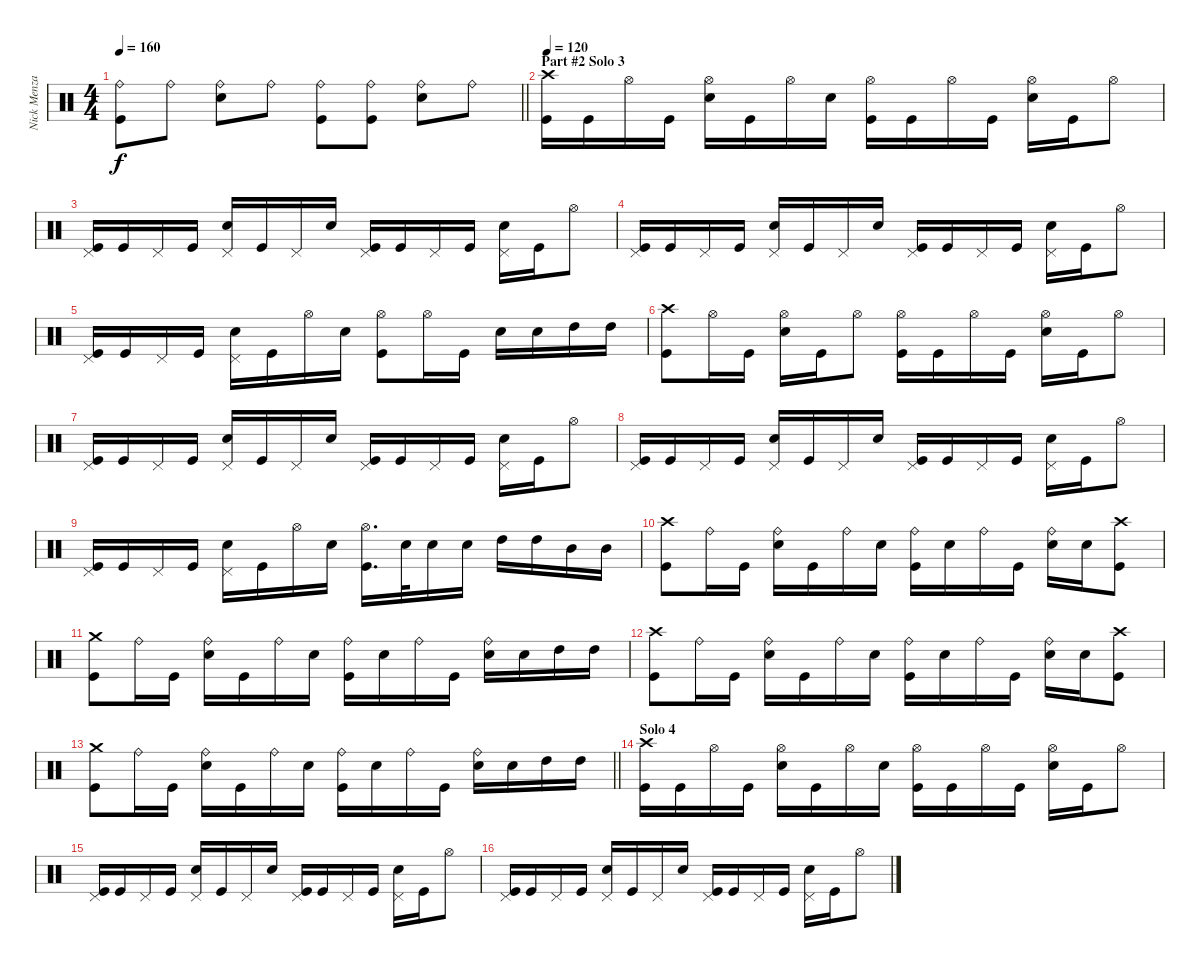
\track ("Nick Menza" "Nick Menza") {instrument percussion}
\staff {score}
\articulation defaults
\ts (4 4)
\tempo 160
\clef neutral
\barLineRight lightlight
\ks c
("Ride (bell)" "Kick (hit)").8{dy f} "Ride (bell)".8 ("Ride (bell)" "Snare (hit) 2").8 "Ride (bell)".8 ("Ride (bell)" "Kick (hit)").8 ("Ride (bell)" "Kick (hit)").8 ("Ride (bell)" "Snare (hit) 2").8 "Ride (bell)".8 |
\section ("" "Part #2 Solo 3")
\tempo 120
("Crash high (hit)" "Kick (hit)").16 "Kick (hit)".16 "Hi-Hat (open)".16 "Kick (hit)".16 ("Hi-Hat (open)" "Snare (hit) 2").16 "Kick (hit)".16 "Hi-Hat (open)".16 "Snare (hit) 2".16 ("Hi-Hat (open)" "Kick (hit)").16 "Kick (hit)".16 "Hi-Hat (open)".16 "Kick (hit)".16 ("Hi-Hat (open)" "Snare (hit) 2").16 "Kick (hit)".16 "Hi-Hat (open)".8 |
("Pedal Hi-Hat (hit)" "Kick (hit)").16 "Kick (hit)".16 "Pedal Hi-Hat (hit)".16 "Kick (hit)".16 ("Pedal Hi-Hat (hit)" "Snare (hit) 2").16 "Kick (hit)".16 "Pedal Hi-Hat (hit)".16 "Snare (hit) 2".16 ("Pedal Hi-Hat (hit)" "Kick (hit)").16 "Kick (hit)".16 "Pedal Hi-Hat (hit)".16 "Kick (hit)".16 ("Pedal Hi-Hat (hit)" "Snare (hit) 2").16 "Kick (hit)".16 "Hi-Hat (open)".8 |
("Pedal Hi-Hat (hit)" "Kick (hit)").16 "Kick (hit)".16 "Pedal Hi-Hat (hit)".16 "Kick (hit)".16 ("Pedal Hi-Hat (hit)" "Snare (hit) 2").16 "Kick (hit)".16 "Pedal Hi-Hat (hit)".16 "Snare (hit) 2".16 ("Pedal Hi-Hat (hit)" "Kick (hit)").16 "Kick (hit)".16 "Pedal Hi-Hat (hit)".16 "Kick (hit)".16 ("Pedal Hi-Hat (hit)" "Snare (hit) 2").16 "Kick (hit)".16 "Hi-Hat (open)".8 |
("Pedal Hi-Hat (hit)" "Kick (hit)").16 "Kick (hit)".16 "Pedal Hi-Hat (hit)".16 "Kick (hit)".16 ("Pedal Hi-Hat (hit)" "Snare (hit) 2").16 "Kick (hit)".16 "Hi-Hat (open)".16 "Snare (hit) 2".16 ("Hi-Hat (open)" "Kick (hit)").8 "Hi-Hat (open)".16 "Kick (hit)".16 "Snare (hit) 2".16 "Snare (hit) 2".16 "High Tom (hit)".16 "High Tom (hit)".16 |
("Crash high (hit)" "Kick (hit)").8 "Hi-Hat (open)".16 "Kick (hit)".16 ("Hi-Hat (open)" "Snare (hit) 2").16 "Kick (hit)".16 "Hi-Hat (open)".8 ("Hi-Hat (open)" "Kick (hit)").16 "Kick (hit)".16 "Hi-Hat (open)".16 "Kick (hit)".16 ("Hi-Hat (open)" "Snare (hit) 2").16 "Kick (hit)".16 "Hi-Hat (open)".8 |
("Pedal Hi-Hat (hit)" "Kick (hit)").16 "Kick (hit)".16 "Pedal Hi-Hat (hit)".16 "Kick (hit)".16 ("Pedal Hi-Hat (hit)" "Snare (hit) 2").16 "Kick (hit)".16 "Pedal Hi-Hat (hit)".16 "Snare (hit) 2".16 ("Pedal Hi-Hat (hit)" "Kick (hit)").16 "Kick (hit)".16 "Pedal Hi-Hat (hit)".16 "Kick (hit)".16 ("Pedal Hi-Hat (hit)" "Snare (hit) 2").16 "Kick (hit)".16 "Hi-Hat (open)".8 |
("Pedal Hi-Hat (hit)" "Kick (hit)").16 "Kick (hit)".16 "Pedal Hi-Hat (hit)".16 "Kick (hit)".16 ("Pedal Hi-Hat (hit)" "Snare (hit) 2").16 "Kick (hit)".16 "Pedal Hi-Hat (hit)".16 "Snare (hit) 2".16 ("Pedal Hi-Hat (hit)" "Kick (hit)").16 "Kick (hit)".16 "Pedal Hi-Hat (hit)".16 "Kick (hit)".16 ("Pedal Hi-Hat (hit)" "Snare (hit) 2").16 "Kick (hit)".16 "Hi-Hat (open)".8 |
("Pedal Hi-Hat (hit)" "Kick (hit)").16 "Kick (hit)".16 "Pedal Hi-Hat (hit)".16 "Kick (hit)".16 ("Pedal Hi-Hat (hit)" "Snare (hit) 2").16 "Kick (hit)".16 "Hi-Hat (open)".16 "Snare (hit) 2".16 ("Hi-Hat (open)" "Kick (hit)").16{d} "Snare (hit) 2".32 "Snare (hit) 2".16 "Snare (hit) 2".16 "High Tom (hit)".16 "High Tom (hit)".16 "Mid Tom (hit)".16 "Mid Tom (hit)".16 |
("Crash high (hit)" "Kick (hit)").8 "Ride (bell)".16 "Kick (hit)".16 ("Ride (bell)" "Snare (hit) 2").16 "Kick (hit)".16 "Ride (bell)".16 "Snare (hit) 2".16 ("Ride (bell)" "Kick (hit)").16 "Snare (hit) 2".16 "Ride (bell)".16 "Kick (hit)".16 ("Ride (bell)" "Snare (hit) 2").16 "Snare (hit) 2".16 ("Crash high (hit)" "Kick (hit)").8 |
("Crash medium (hit)" "Kick (hit)").8 "Ride (bell)".16 "Kick (hit)".16 ("Ride (bell)" "Snare (hit) 2").16 "Kick (hit)".16 "Ride (bell)".16 "Snare (hit) 2".16 ("Ride (bell)" "Kick (hit)").16 "Snare (hit) 2".16 "Ride (bell)".16 "Kick (hit)".16 ("Ride (bell)" "Snare (hit) 2").16 "Snare (hit) 2".16 "High Tom (hit)".16 "High Tom (hit)".16 |
("Crash high (hit)" "Kick (hit)").8 "Ride (bell)".16 "Kick (hit)".16 ("Ride (bell)" "Snare (hit) 2").16 "Kick (hit)".16 "Ride (bell)".16 "Snare (hit) 2".16 ("Ride (bell)" "Kick (hit)").16 "Snare (hit) 2".16 "Ride (bell)".16 "Kick (hit)".16 ("Ride (bell)" "Snare (hit) 2").16 "Snare (hit) 2".16 ("Crash high (hit)" "Kick (hit)").8 |
\barLineRight lightlight
("Crash medium (hit)" "Kick (hit)").8 "Ride (bell)".16 "Kick (hit)".16 ("Ride (bell)" "Snare (hit) 2").16 "Kick (hit)".16 "Ride (bell)".16 "Snare (hit) 2".16 ("Ride (bell)" "Kick (hit)").16 "Snare (hit) 2".16 "Ride (bell)".16 "Kick (hit)".16 ("Ride (bell)" "Snare (hit) 2").16 "Snare (hit) 2".16 "High Tom (hit)".16 "High Tom (hit)".16 |
\section ("" "Solo 4")
("Crash high (hit)" "Kick (hit)").16 "Kick (hit)".16 "Hi-Hat (open)".16 "Kick (hit)".16 ("Hi-Hat (open)" "Snare (hit) 2").16 "Kick (hit)".16 "Hi-Hat (open)".16 "Snare (hit) 2".16 ("Hi-Hat (open)" "Kick (hit)").16 "Kick (hit)".16 "Hi-Hat (open)".16 "Kick (hit)".16 ("Hi-Hat (open)" "Snare (hit) 2").16 "Kick (hit)".16 "Hi-Hat (open)".8 |
("Pedal Hi-Hat (hit)" "Kick (hit)").16 "Kick (hit)".16 "Pedal Hi-Hat (hit)".16 "Kick (hit)".16 ("Pedal Hi-Hat (hit)" "Snare (hit) 2").16 "Kick (hit)".16 "Pedal Hi-Hat (hit)".16 "Snare (hit) 2".16 ("Pedal Hi-Hat (hit)" "Kick (hit)").16 "Kick (hit)".16 "Pedal Hi-Hat (hit)".16 "Kick (hit)".16 ("Pedal Hi-Hat (hit)" "Snare (hit) 2").16 "Kick (hit)".16 "Hi-Hat (open)".8 |
("Pedal Hi-Hat (hit)" "Kick (hit)").16 "Kick (hit)".16 "Pedal Hi-Hat (hit)".16 "Kick (hit)".16 ("Pedal Hi-Hat (hit)" "Snare (hit) 2").16 "Kick (hit)".16 "Pedal Hi-Hat (hit)".16 "Snare (hit) 2".16 ("Pedal Hi-Hat (hit)" "Kick (hit)").16 "Kick (hit)".16 "Pedal Hi-Hat (hit)".16 "Kick (hit)".16 ("Pedal Hi-Hat (hit)" "Snare (hit) 2").16 "Kick (hit)".16 "Hi-Hat (open)".8
